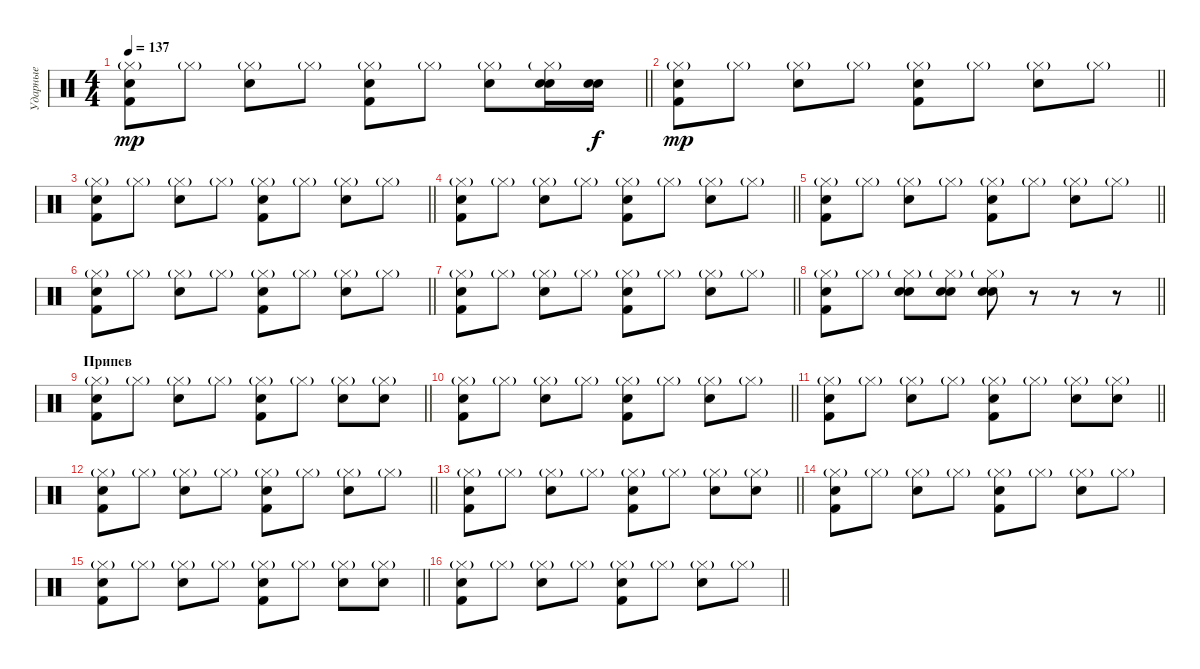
\track ("Ударные" "Ударные") {instrument percussion}
\staff {score}
\articulation defaults
\ts (4 4)
\tempo 137
\clef neutral
\barLineRight lightlight
\ks c
("Kick (hit) 2" "Electric Snare (hit)" "Hi-Hat (closed)"{g}).8{dy mp} "Hi-Hat (closed)"{g}.8 ("Snare (hit) 2" "Hi-Hat (closed)"{g}).8 "Hi-Hat (closed)"{g}.8 ("Kick (hit) 2" "Electric Snare (hit)" "Hi-Hat (closed)"{g}).8 "Hi-Hat (closed)"{g}.8 ("Snare (hit) 2" "Hi-Hat (closed)"{g}).8 ("Snare (hit) 2" "Electric Snare (hit)" "Hi-Hat (closed)"{g}).16 ("Snare (hit) 2" "Electric Snare (hit)").16{dy f} |
\barLineRight lightlight
("Kick (hit) 2" "Electric Snare (hit)" "Hi-Hat (closed)"{g}).8{dy mp} "Hi-Hat (closed)"{g}.8 ("Snare (hit) 2" "Hi-Hat (closed)"{g}).8 "Hi-Hat (closed)"{g}.8 ("Kick (hit) 2" "Electric Snare (hit)" "Hi-Hat (closed)"{g}).8 "Hi-Hat (closed)"{g}.8 ("Snare (hit) 2" "Hi-Hat (closed)"{g}).8 "Hi-Hat (closed)"{g}.8 |
\barLineRight lightlight
("Kick (hit) 2" "Electric Snare (hit)" "Hi-Hat (closed)"{g}).8 "Hi-Hat (closed)"{g}.8 ("Snare (hit) 2" "Hi-Hat (closed)"{g}).8 "Hi-Hat (closed)"{g}.8 ("Kick (hit) 2" "Electric Snare (hit)" "Hi-Hat (closed)"{g}).8 "Hi-Hat (closed)"{g}.8 ("Snare (hit) 2" "Hi-Hat (closed)"{g}).8 "Hi-Hat (closed)"{g}.8 |
\barLineRight lightlight
("Kick (hit) 2" "Electric Snare (hit)" "Hi-Hat (closed)"{g}).8 "Hi-Hat (closed)"{g}.8 ("Snare (hit) 2" "Hi-Hat (closed)"{g}).8 "Hi-Hat (closed)"{g}.8 ("Kick (hit) 2" "Electric Snare (hit)" "Hi-Hat (closed)"{g}).8 "Hi-Hat (closed)"{g}.8 ("Snare (hit) 2" "Hi-Hat (closed)"{g}).8 "Hi-Hat (closed)"{g}.8 |
\barLineRight lightlight
("Kick (hit) 2" "Electric Snare (hit)" "Hi-Hat (closed)"{g}).8 "Hi-Hat (closed)"{g}.8 ("Snare (hit) 2" "Hi-Hat (closed)"{g}).8 "Hi-Hat (closed)"{g}.8 ("Kick (hit) 2" "Electric Snare (hit)" "Hi-Hat (closed)"{g}).8 "Hi-Hat (closed)"{g}.8 ("Snare (hit) 2" "Hi-Hat (closed)"{g}).8 "Hi-Hat (closed)"{g}.8 |
\barLineRight lightlight
("Kick (hit) 2" "Electric Snare (hit)" "Hi-Hat (closed)"{g}).8 "Hi-Hat (closed)"{g}.8 ("Snare (hit) 2" "Hi-Hat (closed)"{g}).8 "Hi-Hat (closed)"{g}.8 ("Kick (hit) 2" "Electric Snare (hit)" "Hi-Hat (closed)"{g}).8 "Hi-Hat (closed)"{g}.8 ("Snare (hit) 2" "Hi-Hat (closed)"{g}).8 "Hi-Hat (closed)"{g}.8 |
\barLineRight lightlight
("Kick (hit) 2" "Electric Snare (hit)" "Hi-Hat (closed)"{g}).8 "Hi-Hat (closed)"{g}.8 ("Snare (hit) 2" "Hi-Hat (closed)"{g}).8 "Hi-Hat (closed)"{g}.8 ("Kick (hit) 2" "Electric Snare (hit)" "Hi-Hat (closed)"{g}).8 "Hi-Hat (closed)"{g}.8 ("Snare (hit) 2" "Hi-Hat (closed)"{g}).8 "Hi-Hat (closed)"{g}.8 |
\barLineRight lightlight
("Kick (hit) 2" "Electric Snare (hit)" "Hi-Hat (closed)"{g}).8 "Hi-Hat (closed)"{g}.8 ("Snare (hit) 2" "Electric Snare (hit)" "Hi-Hat (closed)"{g}).8 ("Snare (hit) 2" "Electric Snare (hit)" "Hi-Hat (closed)"{g}).8 ("Snare (hit) 2" "Electric Snare (hit)" "Hi-Hat (closed)"{g}).8 r.8 r.8 r.8 |
\section ("" "Припев")
\barLineRight lightlight
("Kick (hit) 2" "Electric Snare (hit)" "Hi-Hat (closed)"{g}).8 "Hi-Hat (closed)"{g}.8 ("Snare (hit) 2" "Hi-Hat (closed)"{g}).8 "Hi-Hat (closed)"{g}.8 ("Kick (hit) 2" "Electric Snare (hit)" "Hi-Hat (closed)"{g}).8 "Hi-Hat (closed)"{g}.8 ("Snare (hit) 2" "Hi-Hat (closed)"{g}).8 ("Snare (hit) 2" "Hi-Hat (closed)"{g}).8 |
\barLineRight lightlight
("Kick (hit) 2" "Electric Snare (hit)" "Hi-Hat (closed)"{g}).8 "Hi-Hat (closed)"{g}.8 ("Snare (hit) 2" "Hi-Hat (closed)"{g}).8 "Hi-Hat (closed)"{g}.8 ("Kick (hit) 2" "Electric Snare (hit)" "Hi-Hat (closed)"{g}).8 "Hi-Hat (closed)"{g}.8 ("Snare (hit) 2" "Hi-Hat (closed)"{g}).8 "Hi-Hat (closed)"{g}.8 |
\barLineRight lightlight
("Kick (hit) 2" "Electric Snare (hit)" "Hi-Hat (closed)"{g}).8 "Hi-Hat (closed)"{g}.8 ("Snare (hit) 2" "Hi-Hat (closed)"{g}).8 "Hi-Hat (closed)"{g}.8 ("Kick (hit) 2" "Electric Snare (hit)" "Hi-Hat (closed)"{g}).8 "Hi-Hat (closed)"{g}.8 ("Snare (hit) 2" "Hi-Hat (closed)"{g}).8 ("Snare (hit) 2" "Hi-Hat (closed)"{g}).8 |
\barLineRight lightlight
("Kick (hit) 2" "Electric Snare (hit)" "Hi-Hat (closed)"{g}).8 "Hi-Hat (closed)"{g}.8 ("Snare (hit) 2" "Hi-Hat (closed)"{g}).8 "Hi-Hat (closed)"{g}.8 ("Kick (hit) 2" "Electric Snare (hit)" "Hi-Hat (closed)"{g}).8 "Hi-Hat (closed)"{g}.8 ("Snare (hit) 2" "Hi-Hat (closed)"{g}).8 "Hi-Hat (closed)"{g}.8 |
\barLineRight lightlight
("Kick (hit) 2" "Electric Snare (hit)" "Hi-Hat (closed)"{g}).8 "Hi-Hat (closed)"{g}.8 ("Snare (hit) 2" "Hi-Hat (closed)"{g}).8 "Hi-Hat (closed)"{g}.8 ("Kick (hit) 2" "Electric Snare (hit)" "Hi-Hat (closed)"{g}).8 "Hi-Hat (closed)"{g}.8 ("Snare (hit) 2" "Hi-Hat (closed)"{g}).8 ("Snare (hit) 2" "Hi-Hat (closed)"{g}).8 |
("Kick (hit) 2" "Electric Snare (hit)" "Hi-Hat (closed)"{g}).8 "Hi-Hat (closed)"{g}.8 ("Snare (hit) 2" "Hi-Hat (closed)"{g}).8 "Hi-Hat (closed)"{g}.8 ("Kick (hit) 2" "Electric Snare (hit)" "Hi-Hat (closed)"{g}).8 "Hi-Hat (closed)"{g}.8 ("Snare (hit) 2" "Hi-Hat (closed)"{g}).8 "Hi-Hat (closed)"{g}.8 |
\barLineRight lightlight
("Kick (hit) 2" "Electric Snare (hit)" "Hi-Hat (closed)"{g}).8 "Hi-Hat (closed)"{g}.8 ("Snare (hit) 2" "Hi-Hat (closed)"{g}).8 "Hi-Hat (closed)"{g}.8 ("Kick (hit) 2" "Electric Snare (hit)" "Hi-Hat (closed)"{g}).8 "Hi-Hat (closed)"{g}.8 ("Snare (hit) 2" "Hi-Hat (closed)"{g}).8 ("Snare (hit) 2" "Hi-Hat (closed)"{g}).8 |
\barLineRight lightlight
("Kick (hit) 2" "Electric Snare (hit)" "Hi-Hat (closed)"{g}).8 "Hi-Hat (closed)"{g}.8 ("Snare (hit) 2" "Hi-Hat (closed)"{g}).8 "Hi-Hat (closed)"{g}.8 ("Kick (hit) 2" "Electric Snare (hit)" "Hi-Hat (closed)"{g}).8 "Hi-Hat (closed)"{g}.8 ("Snare (hit) 2" "Hi-Hat (closed)"{g}).8 "Hi-Hat (closed)"{g}.8
